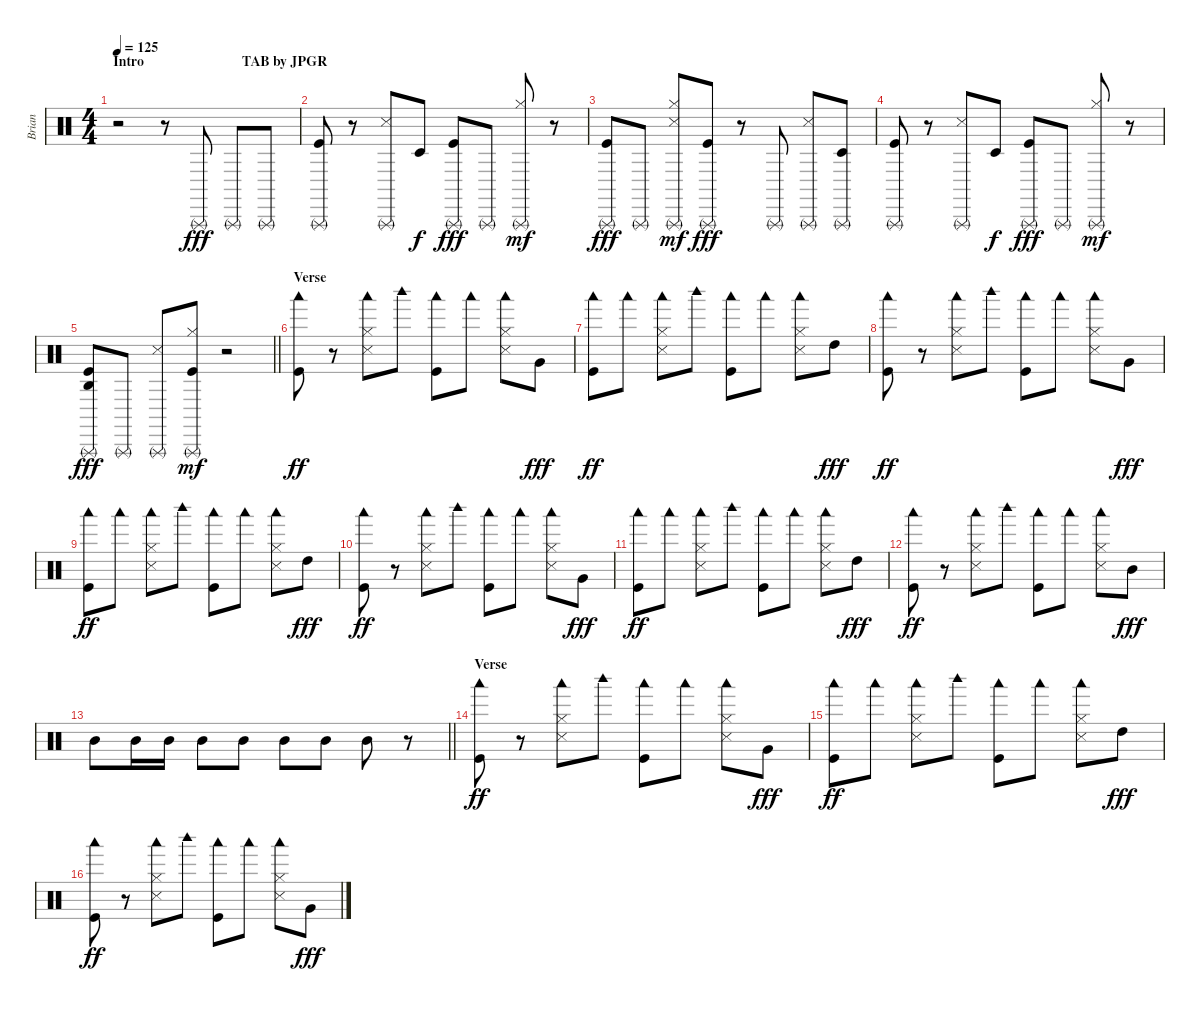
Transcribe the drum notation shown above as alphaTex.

\track ("Brian" "Brian") {instrument percussion}
\staff {score}
\articulation defaults
\ts (4 4)
\section ("" "Intro                            TAB by JPGR")
\tempo 125
\clef neutral
\ks c
r.2{dy fff} r.8 "Triangle (rnute)".8 "Triangle (rnute)".8 "Triangle (rnute)".8 |
("Triangle (rnute)" "Kick (hit)").8 r.8 ("Triangle (rnute)" "Snare (side stick) 3").8 "Timbale low (hit)".8{dy f} ("Triangle (rnute)" "Kick (hit)").8{dy fff} "Triangle (rnute)".8 ("Triangle (rnute)" "Hi-Hat (closed)").8{dy mf} r.8 |
("Triangle (rnute)" "Kick (hit)").8{dy fff} "Triangle (rnute)".8 ("Triangle (rnute)" "Hi-Hat (closed)" "Snare (side stick) 3").8{dy mf} ("Triangle (rnute)" "Kick (hit)").8{dy fff} r.8 "Triangle (rnute)".8 ("Triangle (rnute)" "Snare (side stick) 3").8 ("Triangle (rnute)" "Timbale low (hit)").8 |
("Triangle (rnute)" "Kick (hit)").8 r.8 ("Triangle (rnute)" "Snare (side stick) 3").8 "Timbale low (hit)".8{dy f} ("Triangle (rnute)" "Kick (hit)").8{dy fff} "Triangle (rnute)".8 ("Triangle (rnute)" "Hi-Hat (closed)").8{dy mf} r.8 |
\barLineRight lightlight
("Triangle (rnute)" "Agogo high (hit)" "Kick (hit)").8{dy fff} "Triangle (rnute)".8 ("Triangle (rnute)" "Snare (side stick) 3").8 ("Triangle (rnute)" "Hi-Hat (closed)" "Kick (hit)").8{dy mf} r.2 |
\section ("" "Verse")
("Woodblock low (hit)" "Kick (hit)").8{dy ff} r.8 ("Woodblock low (hit)" "Hi-Hat (closed)" "Snare (side stick) 3").8 "Woodblock high (hit)".8 ("Woodblock low (hit)" "Kick (hit)").8 "Woodblock low (hit)".8 ("Woodblock low (hit)" "Hi-Hat (closed)" "Snare (side stick) 3").8 "Very Low Tom (hit)".8{dy fff} |
("Woodblock low (hit)" "Kick (hit)").8{dy ff} "Woodblock low (hit)".8 ("Woodblock low (hit)" "Hi-Hat (closed)" "Snare (side stick) 3").8 "Woodblock high (hit)".8 ("Woodblock low (hit)" "Kick (hit)").8 "Woodblock low (hit)".8 ("Woodblock low (hit)" "Hi-Hat (closed)" "Snare (side stick) 3").8 "High Tom (hit)".8{dy fff} |
("Woodblock low (hit)" "Kick (hit)").8{dy ff} r.8 ("Woodblock low (hit)" "Hi-Hat (closed)" "Snare (side stick) 3").8 "Woodblock high (hit)".8 ("Woodblock low (hit)" "Kick (hit)").8 "Woodblock low (hit)".8 ("Woodblock low (hit)" "Hi-Hat (closed)" "Snare (side stick) 3").8 "Very Low Tom (hit)".8{dy fff} |
("Woodblock low (hit)" "Kick (hit)").8{dy ff} "Woodblock low (hit)".8 ("Woodblock low (hit)" "Hi-Hat (closed)" "Snare (side stick) 3").8 "Woodblock high (hit)".8 ("Woodblock low (hit)" "Kick (hit)").8 "Woodblock low (hit)".8 ("Woodblock low (hit)" "Hi-Hat (closed)" "Snare (side stick) 3").8 "High Tom (hit)".8{dy fff} |
("Woodblock low (hit)" "Kick (hit)").8{dy ff} r.8 ("Woodblock low (hit)" "Hi-Hat (closed)" "Snare (side stick) 3").8 "Woodblock high (hit)".8 ("Woodblock low (hit)" "Kick (hit)").8 "Woodblock low (hit)".8 ("Woodblock low (hit)" "Hi-Hat (closed)" "Snare (side stick) 3").8 "Very Low Tom (hit)".8{dy fff} |
("Woodblock low (hit)" "Kick (hit)").8{dy ff} "Woodblock low (hit)".8 ("Woodblock low (hit)" "Hi-Hat (closed)" "Snare (side stick) 3").8 "Woodblock high (hit)".8 ("Woodblock low (hit)" "Kick (hit)").8 "Woodblock low (hit)".8 ("Woodblock low (hit)" "Hi-Hat (closed)" "Snare (side stick) 3").8 "High Tom (hit)".8{dy fff} |
("Woodblock low (hit)" "Kick (hit)").8{dy ff} r.8 ("Woodblock low (hit)" "Hi-Hat (closed)" "Snare (side stick) 3").8 "Woodblock high (hit)".8 ("Woodblock low (hit)" "Kick (hit)").8 "Woodblock low (hit)".8 ("Woodblock low (hit)" "Hi-Hat (closed)" "Snare (side stick) 3").8 "Mid Tom (hit)".8{dy fff} |
\barLineRight lightlight "Mid Tom (hit)".8 "Mid Tom (hit)".16 "Mid Tom (hit)".16 "Mid Tom (hit)".8 "Mid Tom (hit)".8 "Mid Tom (hit)".8 "Mid Tom (hit)".8 "Mid Tom (hit)".8
r.8 |
\section ("" "Verse")
("Woodblock low (hit)" "Kick (hit)").8{dy ff} r.8 ("Woodblock low (hit)" "Hi-Hat (closed)" "Snare (side stick) 3").8 "Woodblock high (hit)".8 ("Woodblock low (hit)" "Kick (hit)").8 "Woodblock low (hit)".8 ("Woodblock low (hit)" "Hi-Hat (closed)" "Snare (side stick) 3").8 "Very Low Tom (hit)".8{dy fff} |
("Woodblock low (hit)" "Kick (hit)").8{dy ff} "Woodblock low (hit)".8 ("Woodblock low (hit)" "Hi-Hat (closed)" "Snare (side stick) 3").8 "Woodblock high (hit)".8 ("Woodblock low (hit)" "Kick (hit)").8 "Woodblock low (hit)".8 ("Woodblock low (hit)" "Hi-Hat (closed)" "Snare (side stick) 3").8 "High Tom (hit)".8{dy fff} |
("Woodblock low (hit)" "Kick (hit)").8{dy ff} r.8 ("Woodblock low (hit)" "Hi-Hat (closed)" "Snare (side stick) 3").8 "Woodblock high (hit)".8 ("Woodblock low (hit)" "Kick (hit)").8 "Woodblock low (hit)".8 ("Woodblock low (hit)" "Hi-Hat (closed)" "Snare (side stick) 3").8 "Very Low Tom (hit)".8{dy fff}
